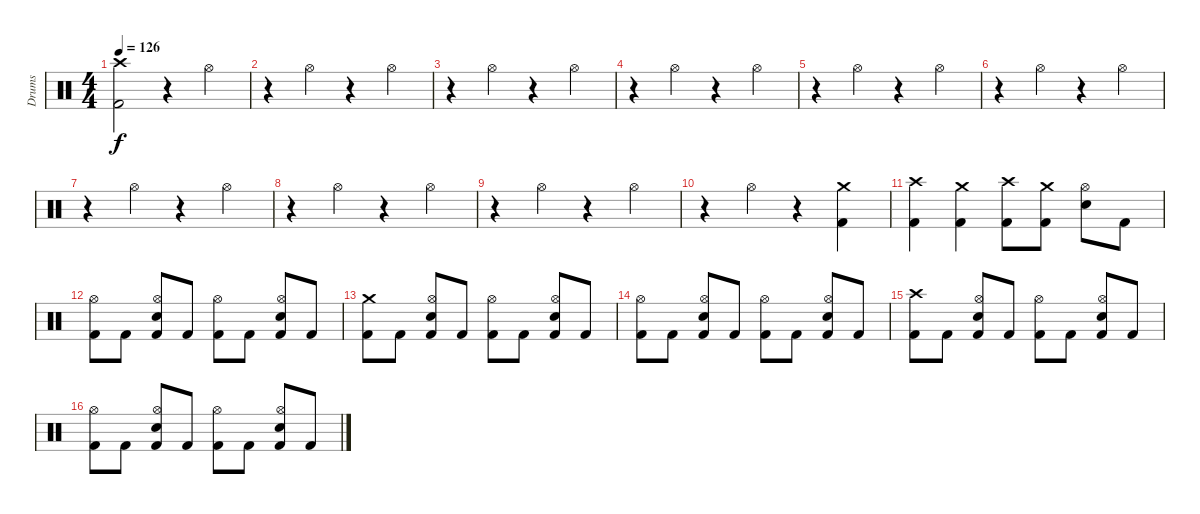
\track ("Drums" "Drums") {instrument percussion}
\staff {score}
\articulation defaults
\ts (4 4)
\tempo 126
\clef neutral
\ks c
("Crash high (hit)" "Kick (hit) 2").2{dy f} r.4 "Hi-Hat (open)".4 |
r.4 "Hi-Hat (open)".4 r.4 "Hi-Hat (open)".4 |
r.4 "Hi-Hat (open)".4 r.4 "Hi-Hat (open)".4 |
r.4 "Hi-Hat (open)".4 r.4 "Hi-Hat (open)".4 |
r.4 "Hi-Hat (open)".4 r.4 "Hi-Hat (open)".4 |
r.4 "Hi-Hat (open)".4 r.4 "Hi-Hat (open)".4 |
r.4 "Hi-Hat (open)".4 r.4 "Hi-Hat (open)".4 |
r.4 "Hi-Hat (open)".4 r.4 "Hi-Hat (open)".4 |
r.4 "Hi-Hat (open)".4 r.4 "Hi-Hat (open)".4 |
r.4 "Hi-Hat (open)".4 r.4 ("Crash medium (hit)" "Kick (hit) 2").4 |
("Crash high (hit)" "Kick (hit) 2").4 ("Crash medium (hit)" "Kick (hit) 2").4 ("Crash high (hit)" "Kick (hit) 2").8 ("Crash medium (hit)" "Kick (hit) 2").8 ("Hi-Hat (open)" "Electric Snare (hit)").8 "Kick (hit) 2".8 |
("Hi-Hat (open)" "Kick (hit) 2").8 "Kick (hit) 2".8 ("Hi-Hat (open)" "Electric Snare (hit)" "Kick (hit) 2").8 "Kick (hit) 2".8 ("Hi-Hat (open)" "Kick (hit) 2").8 "Kick (hit) 2".8 ("Hi-Hat (open)" "Electric Snare (hit)" "Kick (hit) 2").8 "Kick (hit) 2".8 |
("Crash medium (hit)" "Kick (hit) 2").8 "Kick (hit) 2".8 ("Hi-Hat (open)" "Electric Snare (hit)" "Kick (hit) 2").8 "Kick (hit) 2".8 ("Hi-Hat (open)" "Kick (hit) 2").8 "Kick (hit) 2".8 ("Hi-Hat (open)" "Electric Snare (hit)" "Kick (hit) 2").8 "Kick (hit) 2".8 |
("Hi-Hat (open)" "Kick (hit) 2").8 "Kick (hit) 2".8 ("Hi-Hat (open)" "Electric Snare (hit)" "Kick (hit) 2").8 "Kick (hit) 2".8 ("Hi-Hat (open)" "Kick (hit) 2").8 "Kick (hit) 2".8 ("Hi-Hat (open)" "Electric Snare (hit)" "Kick (hit) 2").8 "Kick (hit) 2".8 |
("Crash high (hit)" "Kick (hit) 2").8 "Kick (hit) 2".8 ("Hi-Hat (open)" "Electric Snare (hit)" "Kick (hit) 2").8 "Kick (hit) 2".8 ("Hi-Hat (open)" "Kick (hit) 2").8 "Kick (hit) 2".8 ("Hi-Hat (open)" "Electric Snare (hit)" "Kick (hit) 2").8 "Kick (hit) 2".8 |
("Hi-Hat (open)" "Kick (hit) 2").8 "Kick (hit) 2".8 ("Hi-Hat (open)" "Electric Snare (hit)" "Kick (hit) 2").8 "Kick (hit) 2".8 ("Hi-Hat (open)" "Kick (hit) 2").8 "Kick (hit) 2".8 ("Hi-Hat (open)" "Electric Snare (hit)" "Kick (hit) 2").8 "Kick (hit) 2".8
